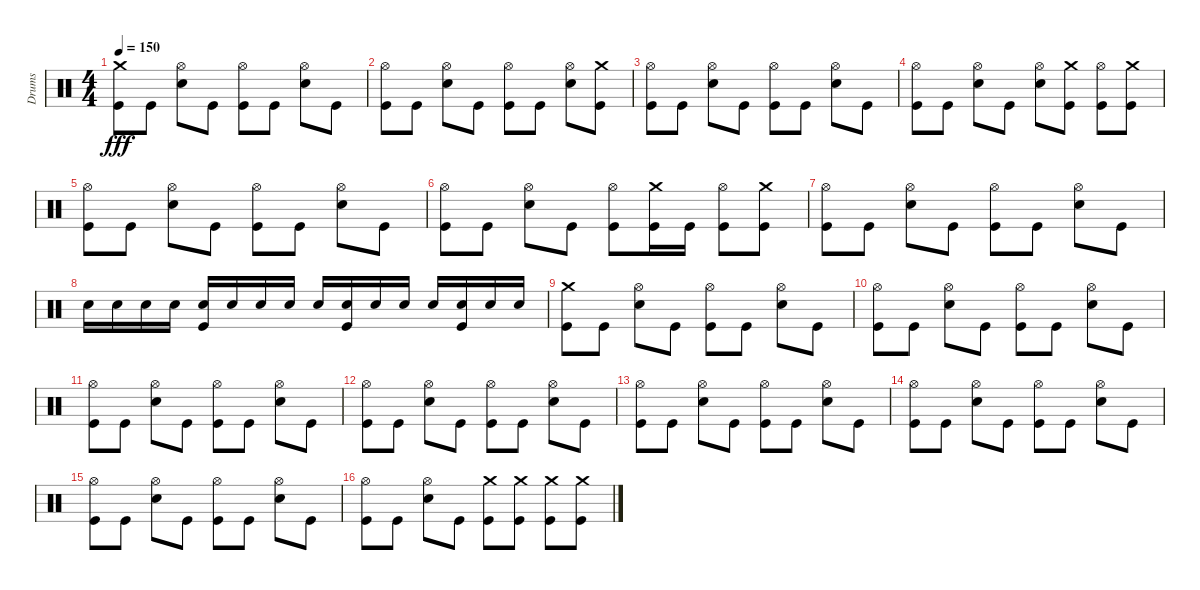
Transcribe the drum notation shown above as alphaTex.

\track ("Drums" "Drums") {instrument percussion}
\staff {score}
\articulation defaults
\ts (4 4)
\tempo 150
\clef neutral
\ks c
("Crash medium (hit)" "Kick (hit)").8{dy fff} "Kick (hit)".8 ("Hi-Hat (open)" "Snare (hit) 2").8 "Kick (hit)".8 ("Hi-Hat (open)" "Kick (hit)").8 "Kick (hit)".8 ("Hi-Hat (open)" "Snare (hit) 2").8 "Kick (hit)".8 |
("Hi-Hat (open)" "Kick (hit)").8 "Kick (hit)".8 ("Hi-Hat (open)" "Snare (hit) 2").8 "Kick (hit)".8 ("Hi-Hat (open)" "Kick (hit)").8 "Kick (hit)".8 ("Snare (hit) 2" "Hi-Hat (open)").8 ("Crash medium (hit)" "Kick (hit)").8 |
("Hi-Hat (open)" "Kick (hit)").8 "Kick (hit)".8 ("Hi-Hat (open)" "Snare (hit) 2").8 "Kick (hit)".8 ("Hi-Hat (open)" "Kick (hit)").8 "Kick (hit)".8 ("Hi-Hat (open)" "Snare (hit) 2").8 "Kick (hit)".8 |
("Hi-Hat (open)" "Kick (hit)").8 "Kick (hit)".8 ("Hi-Hat (open)" "Snare (hit) 2").8 "Kick (hit)".8 ("Snare (hit) 2" "Hi-Hat (open)").8 ("Crash medium (hit)" "Kick (hit)").8 ("Kick (hit)" "Hi-Hat (open)").8 ("Crash medium (hit)" "Kick (hit)").8 |
("Hi-Hat (open)" "Kick (hit)").8 "Kick (hit)".8 ("Hi-Hat (open)" "Snare (hit) 2").8 "Kick (hit)".8 ("Hi-Hat (open)" "Kick (hit)").8 "Kick (hit)".8 ("Hi-Hat (open)" "Snare (hit) 2").8 "Kick (hit)".8 |
("Hi-Hat (open)" "Kick (hit)").8 "Kick (hit)".8 ("Hi-Hat (open)" "Snare (hit) 2").8 "Kick (hit)".8 ("Hi-Hat (open)" "Kick (hit)").8 ("Crash medium (hit)" "Kick (hit)").16 "Kick (hit)".16 ("Kick (hit)" "Hi-Hat (open)").8 ("Crash medium (hit)" "Kick (hit)").8 |
("Hi-Hat (open)" "Kick (hit)").8 "Kick (hit)".8 ("Hi-Hat (open)" "Snare (hit) 2").8 "Kick (hit)".8 ("Hi-Hat (open)" "Kick (hit)").8 "Kick (hit)".8 ("Hi-Hat (open)" "Snare (hit) 2").8 "Kick (hit)".8 |
"Snare (hit) 2".16 "Snare (hit) 2".16 "Snare (hit) 2".16 "Snare (hit) 2".16 ("Kick (hit)" "Snare (hit) 2").16 "Snare (hit) 2".16 "Snare (hit) 2".16 "Snare (hit) 2".16 "Snare (hit) 2".16 ("Kick (hit)" "Snare (hit) 2").16 "Snare (hit) 2".16 "Snare (hit) 2".16 "Snare (hit) 2".16 ("Kick (hit)" "Snare (hit) 2").16 "Snare (hit) 2".16 "Snare (hit) 2".16 |
("Crash medium (hit)" "Kick (hit)").8 "Kick (hit)".8 ("Hi-Hat (open)" "Snare (hit) 2").8 "Kick (hit)".8 ("Hi-Hat (open)" "Kick (hit)").8 "Kick (hit)".8 ("Hi-Hat (open)" "Snare (hit) 2").8 "Kick (hit)".8 |
("Hi-Hat (open)" "Kick (hit)").8 "Kick (hit)".8 ("Hi-Hat (open)" "Snare (hit) 2").8 "Kick (hit)".8 ("Hi-Hat (open)" "Kick (hit)").8 "Kick (hit)".8 ("Hi-Hat (open)" "Snare (hit) 2").8 "Kick (hit)".8 |
("Hi-Hat (open)" "Kick (hit)").8 "Kick (hit)".8 ("Hi-Hat (open)" "Snare (hit) 2").8 "Kick (hit)".8 ("Hi-Hat (open)" "Kick (hit)").8 "Kick (hit)".8 ("Hi-Hat (open)" "Snare (hit) 2").8 "Kick (hit)".8 |
("Hi-Hat (open)" "Kick (hit)").8 "Kick (hit)".8 ("Hi-Hat (open)" "Snare (hit) 2").8 "Kick (hit)".8 ("Hi-Hat (open)" "Kick (hit)").8 "Kick (hit)".8 ("Hi-Hat (open)" "Snare (hit) 2").8 "Kick (hit)".8 |
("Hi-Hat (open)" "Kick (hit)").8 "Kick (hit)".8 ("Hi-Hat (open)" "Snare (hit) 2").8 "Kick (hit)".8 ("Hi-Hat (open)" "Kick (hit)").8 "Kick (hit)".8 ("Hi-Hat (open)" "Snare (hit) 2").8 "Kick (hit)".8 |
("Hi-Hat (open)" "Kick (hit)").8 "Kick (hit)".8 ("Hi-Hat (open)" "Snare (hit) 2").8 "Kick (hit)".8 ("Hi-Hat (open)" "Kick (hit)").8 "Kick (hit)".8 ("Hi-Hat (open)" "Snare (hit) 2").8 "Kick (hit)".8 |
("Hi-Hat (open)" "Kick (hit)").8 "Kick (hit)".8 ("Hi-Hat (open)" "Snare (hit) 2").8 "Kick (hit)".8 ("Hi-Hat (open)" "Kick (hit)").8 "Kick (hit)".8 ("Hi-Hat (open)" "Snare (hit) 2").8 "Kick (hit)".8 |
("Hi-Hat (open)" "Kick (hit)").8 "Kick (hit)".8 ("Snare (hit) 2" "Hi-Hat (open)").8 "Kick (hit)".8 ("Crash medium (hit)" "Kick (hit)").8 ("Kick (hit)" "Crash medium (hit)").8 ("Kick (hit)" "Crash medium (hit)").8 ("Kick (hit)" "Crash medium (hit)").8
